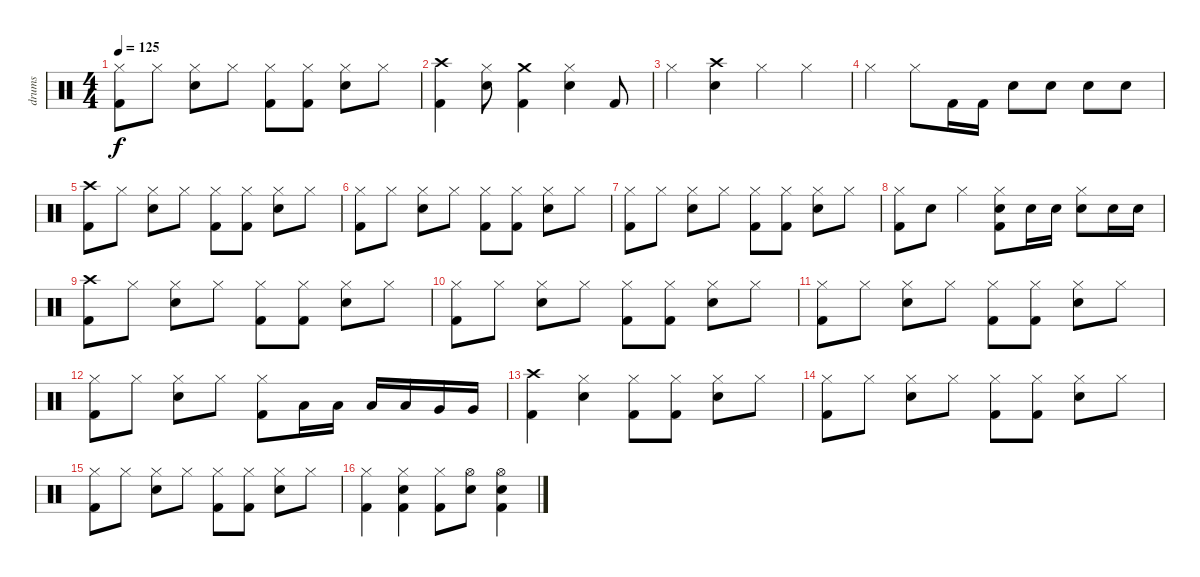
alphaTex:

\track ("drums" "drums") {instrument percussion}
\staff {score}
\articulation defaults
\ts (4 4)
\tempo 125
\clef neutral
\ks c
("Hi-Hat (closed)" "Kick (hit) 2").8{dy f} "Hi-Hat (closed)".8 ("Hi-Hat (closed)" "Electric Snare (hit)").8 "Hi-Hat (closed)".8 ("Hi-Hat (closed)" "Kick (hit) 2").8 ("Hi-Hat (closed)" "Kick (hit) 2").8 ("Hi-Hat (closed)" "Electric Snare (hit)").8 "Hi-Hat (closed)".8 |
("Crash high (hit)" "Kick (hit) 2").4 ("Hi-Hat (closed)" "Electric Snare (hit)").8 ("Crash medium (hit)" "Kick (hit) 2").4 ("Hi-Hat (closed)" "Electric Snare (hit)").4 "Kick (hit) 2".8 |
"Hi-Hat (closed)".4 ("Crash high (hit)" "Electric Snare (hit)").4 "Hi-Hat (closed)".4 "Hi-Hat (closed)".4 |
"Hi-Hat (closed)".4 "Hi-Hat (closed)".8 "Kick (hit) 2".16 "Kick (hit) 2".16 "Electric Snare (hit)".8 "Electric Snare (hit)".8 "Electric Snare (hit)".8 "Electric Snare (hit)".8 |
("Crash high (hit)" "Kick (hit) 2").8 "Hi-Hat (closed)".8 ("Hi-Hat (closed)" "Electric Snare (hit)").8 "Hi-Hat (closed)".8 ("Hi-Hat (closed)" "Kick (hit) 2").8 ("Hi-Hat (closed)" "Kick (hit) 2").8 ("Hi-Hat (closed)" "Electric Snare (hit)").8 "Hi-Hat (closed)".8 |
("Hi-Hat (closed)" "Kick (hit) 2").8 "Hi-Hat (closed)".8 ("Hi-Hat (closed)" "Electric Snare (hit)").8 "Hi-Hat (closed)".8 ("Hi-Hat (closed)" "Kick (hit) 2").8 ("Hi-Hat (closed)" "Kick (hit) 2").8 ("Hi-Hat (closed)" "Electric Snare (hit)").8 "Hi-Hat (closed)".8 |
("Hi-Hat (closed)" "Kick (hit) 2").8 "Hi-Hat (closed)".8 ("Hi-Hat (closed)" "Electric Snare (hit)").8 "Hi-Hat (closed)".8 ("Hi-Hat (closed)" "Kick (hit) 2").8 ("Hi-Hat (closed)" "Kick (hit) 2").8 ("Hi-Hat (closed)" "Electric Snare (hit)").8 "Hi-Hat (closed)".8 |
("Hi-Hat (closed)" "Kick (hit) 2").8 "Electric Snare (hit)".8 "Hi-Hat (closed)".4 ("Hi-Hat (closed)" "Electric Snare (hit)" "Kick (hit) 2").8 "Electric Snare (hit)".16 "Electric Snare (hit)".16 ("Hi-Hat (closed)" "Electric Snare (hit)").8 "Electric Snare (hit)".16 "Electric Snare (hit)".16 |
("Crash high (hit)" "Kick (hit) 2").8 "Hi-Hat (closed)".8 ("Hi-Hat (closed)" "Electric Snare (hit)").8 "Hi-Hat (closed)".8 ("Hi-Hat (closed)" "Kick (hit) 2").8 ("Hi-Hat (closed)" "Kick (hit) 2").8 ("Hi-Hat (closed)" "Electric Snare (hit)").8 "Hi-Hat (closed)".8 |
("Hi-Hat (closed)" "Kick (hit) 2").8 "Hi-Hat (closed)".8 ("Hi-Hat (closed)" "Electric Snare (hit)").8 "Hi-Hat (closed)".8 ("Hi-Hat (closed)" "Kick (hit) 2").8 ("Hi-Hat (closed)" "Kick (hit) 2").8 ("Hi-Hat (closed)" "Electric Snare (hit)").8 "Hi-Hat (closed)".8 |
("Hi-Hat (closed)" "Kick (hit) 2").8 "Hi-Hat (closed)".8 ("Hi-Hat (closed)" "Electric Snare (hit)").8 "Hi-Hat (closed)".8 ("Hi-Hat (closed)" "Kick (hit) 2").8 ("Hi-Hat (closed)" "Kick (hit) 2").8 ("Hi-Hat (closed)" "Electric Snare (hit)").8 "Hi-Hat (closed)".8 |
("Hi-Hat (closed)" "Kick (hit) 2").8 "Hi-Hat (closed)".8 ("Hi-Hat (closed)" "Electric Snare (hit)").8 "Hi-Hat (closed)".8 ("Hi-Hat (closed)" "Kick (hit) 2").8 "Low Tom (hit)".16 "Low Tom (hit)".16 "Low Tom (hit)".16 "Low Tom (hit)".16 "Very Low Tom (hit)".16 "Very Low Tom (hit)".16 |
("Crash high (hit)" "Kick (hit) 2").4 ("Hi-Hat (closed)" "Electric Snare (hit)").4 ("Hi-Hat (closed)" "Kick (hit) 2").8 ("Hi-Hat (closed)" "Kick (hit) 2").8 ("Hi-Hat (closed)" "Electric Snare (hit)").8 "Hi-Hat (closed)".8 |
("Hi-Hat (closed)" "Kick (hit) 2").8 "Hi-Hat (closed)".8 ("Hi-Hat (closed)" "Electric Snare (hit)").8 "Hi-Hat (closed)".8 ("Hi-Hat (closed)" "Kick (hit) 2").8 ("Hi-Hat (closed)" "Kick (hit) 2").8 ("Hi-Hat (closed)" "Electric Snare (hit)").8 "Hi-Hat (closed)".8 |
("Hi-Hat (closed)" "Kick (hit) 2").8 "Hi-Hat (closed)".8 ("Hi-Hat (closed)" "Electric Snare (hit)").8 "Hi-Hat (closed)".8 ("Hi-Hat (closed)" "Kick (hit) 2").8 ("Hi-Hat (closed)" "Kick (hit) 2").8 ("Hi-Hat (closed)" "Electric Snare (hit)").8 "Hi-Hat (closed)".8 |
("Hi-Hat (closed)" "Kick (hit) 2").4 ("Hi-Hat (closed)" "Electric Snare (hit)" "Kick (hit) 2").4 ("Hi-Hat (closed)" "Kick (hit) 2").8 ("Hi-Hat (open)" "Electric Snare (hit)").8 ("Hi-Hat (open)" "Electric Snare (hit)" "Kick (hit) 2").4
